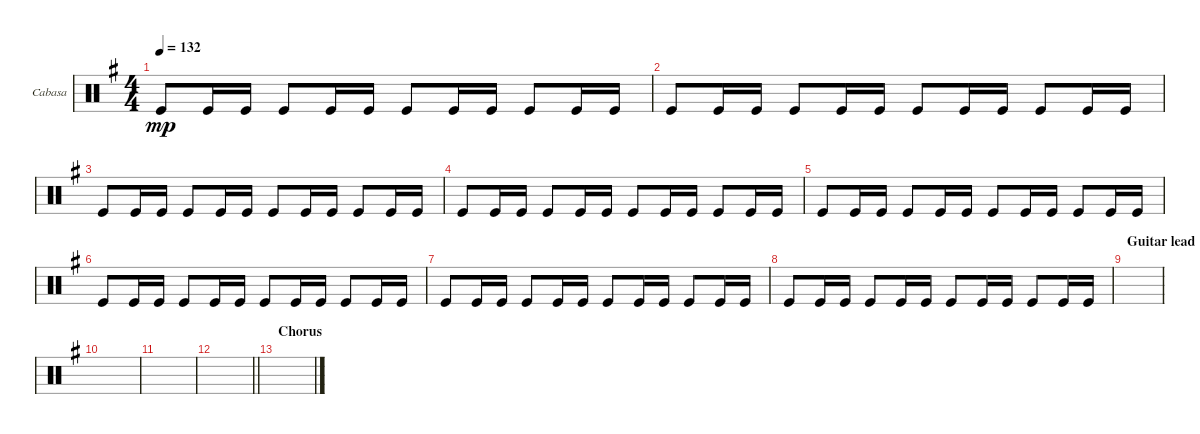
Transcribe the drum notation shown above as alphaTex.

\bracketExtendMode groupsimilarinstruments
\firstSystemTrackNameOrientation horizontal
\otherSystemsTrackNameOrientation horizontal
\track ("Cabasa" "Cabasa") {instrument percussion}
\staff {score}
\articulation defaults
\ts (4 4)
\tempo 132
\clef neutral
\scale
0.333333
\ks g "Kick (hit)".8{dy mp} "Kick (hit)".16 "Kick (hit)".16 "Kick (hit)".8 "Kick (hit)".16 "Kick (hit)".16 "Kick (hit)".8 "Kick (hit)".16 "Kick (hit)".16 "Kick (hit)".8 "Kick (hit)".16 "Kick (hit)".16
|
\scale
0.333333 "Kick (hit)".8 "Kick (hit)".16 "Kick (hit)".16 "Kick (hit)".8 "Kick (hit)".16 "Kick (hit)".16 "Kick (hit)".8 "Kick (hit)".16 "Kick (hit)".16 "Kick (hit)".8 "Kick (hit)".16 "Kick (hit)".16 |
\scale
0.333333 "Kick (hit)".8 "Kick (hit)".16 "Kick (hit)".16 "Kick (hit)".8 "Kick (hit)".16 "Kick (hit)".16 "Kick (hit)".8 "Kick (hit)".16 "Kick (hit)".16 "Kick (hit)".8 "Kick (hit)".16 "Kick (hit)".16 |
\scale
0.333333 "Kick (hit)".8 "Kick (hit)".16 "Kick (hit)".16 "Kick (hit)".8 "Kick (hit)".16 "Kick (hit)".16 "Kick (hit)".8 "Kick (hit)".16 "Kick (hit)".16 "Kick (hit)".8 "Kick (hit)".16 "Kick (hit)".16 |
\scale
0.333333 "Kick (hit)".8 "Kick (hit)".16 "Kick (hit)".16 "Kick (hit)".8 "Kick (hit)".16 "Kick (hit)".16 "Kick (hit)".8 "Kick (hit)".16 "Kick (hit)".16 "Kick (hit)".8 "Kick (hit)".16 "Kick (hit)".16 |
\scale
0.333333 "Kick (hit)".8 "Kick (hit)".16 "Kick (hit)".16 "Kick (hit)".8 "Kick (hit)".16 "Kick (hit)".16 "Kick (hit)".8 "Kick (hit)".16 "Kick (hit)".16 "Kick (hit)".8 "Kick (hit)".16 "Kick (hit)".16 |
\scale
0.333333 "Kick (hit)".8 "Kick (hit)".16 "Kick (hit)".16 "Kick (hit)".8 "Kick (hit)".16 "Kick (hit)".16 "Kick (hit)".8 "Kick (hit)".16 "Kick (hit)".16 "Kick (hit)".8 "Kick (hit)".16 "Kick (hit)".16 |
\scale
0.333333 "Kick (hit)".8 "Kick (hit)".16 "Kick (hit)".16 "Kick (hit)".8 "Kick (hit)".16 "Kick (hit)".16 "Kick (hit)".8 "Kick (hit)".16 "Kick (hit)".16 "Kick (hit)".8 "Kick (hit)".16 "Kick (hit)".16 |
\section ("" "Guitar lead")
\scale
0.333333 |
\scale
0.333333 |
\scale
0.333333 |
\scale
0.333333
\barLineRight lightlight
|
\section ("" "Chorus")
\scale
0.333333 |
\scale
0.333333 |
\scale
0.333333 |
\scale
0.333333
